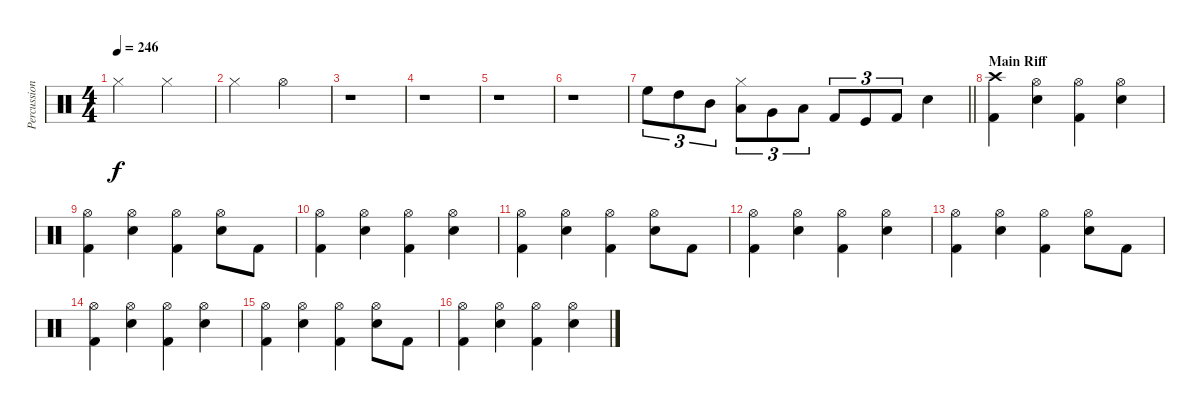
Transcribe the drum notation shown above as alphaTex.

\track ("Percussions" "Percussion") {instrument percussion}
\staff {score}
\articulation defaults
\ts (4 4)
\tempo 246
\clef neutral
\ks c "Hi-Hat (closed)".2{dy f} "Hi-Hat (closed)".2
|
"Hi-Hat (closed)".2 "Hi-Hat (open)".2 |
r.1 |
r.1 |
r.1 |
r.1 |
\barLineRight lightlight "High Floor Tom (hit)".8{tu (3 2)} "High Tom (hit)".8{tu (3 2)} "Mid Tom (hit)".8{tu (3 2)}
("Hi-Hat (closed)" "Low Tom (hit)").8{tu (3 2)} "Very Low Tom (hit)".8{tu (3 2)} "Low Floor Tom (hit)".8{tu (3 2)} "Kick (hit) 2".8{tu (3 2)} "Kick (hit)".8{tu (3 2)} "Kick (hit) 2".8{tu (3 2)} "Electric Snare (hit)".4 |
\section ("" "Main Riff")
("Crash high (hit)" "Kick (hit) 2").4 ("Hi-Hat (open)" "Electric Snare (hit)").4 ("Hi-Hat (open)" "Kick (hit) 2").4 ("Hi-Hat (open)" "Electric Snare (hit)").4 |
("Hi-Hat (open)" "Kick (hit) 2").4 ("Hi-Hat (open)" "Electric Snare (hit)").4 ("Hi-Hat (open)" "Kick (hit) 2").4 ("Hi-Hat (open)" "Electric Snare (hit)").8 "Kick (hit) 2".8 |
("Hi-Hat (open)" "Kick (hit) 2").4 ("Hi-Hat (open)" "Electric Snare (hit)").4 ("Hi-Hat (open)" "Kick (hit) 2").4 ("Hi-Hat (open)" "Electric Snare (hit)").4 |
("Hi-Hat (open)" "Kick (hit) 2").4 ("Hi-Hat (open)" "Electric Snare (hit)").4 ("Hi-Hat (open)" "Kick (hit) 2").4 ("Hi-Hat (open)" "Electric Snare (hit)").8 "Kick (hit) 2".8 |
("Hi-Hat (open)" "Kick (hit) 2").4 ("Hi-Hat (open)" "Electric Snare (hit)").4 ("Hi-Hat (open)" "Kick (hit) 2").4 ("Hi-Hat (open)" "Electric Snare (hit)").4 |
("Hi-Hat (open)" "Kick (hit) 2").4 ("Hi-Hat (open)" "Electric Snare (hit)").4 ("Hi-Hat (open)" "Kick (hit) 2").4 ("Hi-Hat (open)" "Electric Snare (hit)").8 "Kick (hit) 2".8 |
("Hi-Hat (open)" "Kick (hit) 2").4 ("Hi-Hat (open)" "Electric Snare (hit)").4 ("Hi-Hat (open)" "Kick (hit) 2").4 ("Hi-Hat (open)" "Electric Snare (hit)").4 |
("Hi-Hat (open)" "Kick (hit) 2").4 ("Hi-Hat (open)" "Electric Snare (hit)").4 ("Hi-Hat (open)" "Kick (hit) 2").4 ("Hi-Hat (open)" "Electric Snare (hit)").8 "Kick (hit) 2".8 |
("Hi-Hat (open)" "Kick (hit) 2").4 ("Hi-Hat (open)" "Electric Snare (hit)").4 ("Hi-Hat (open)" "Kick (hit) 2").4 ("Hi-Hat (open)" "Electric Snare (hit)").4
